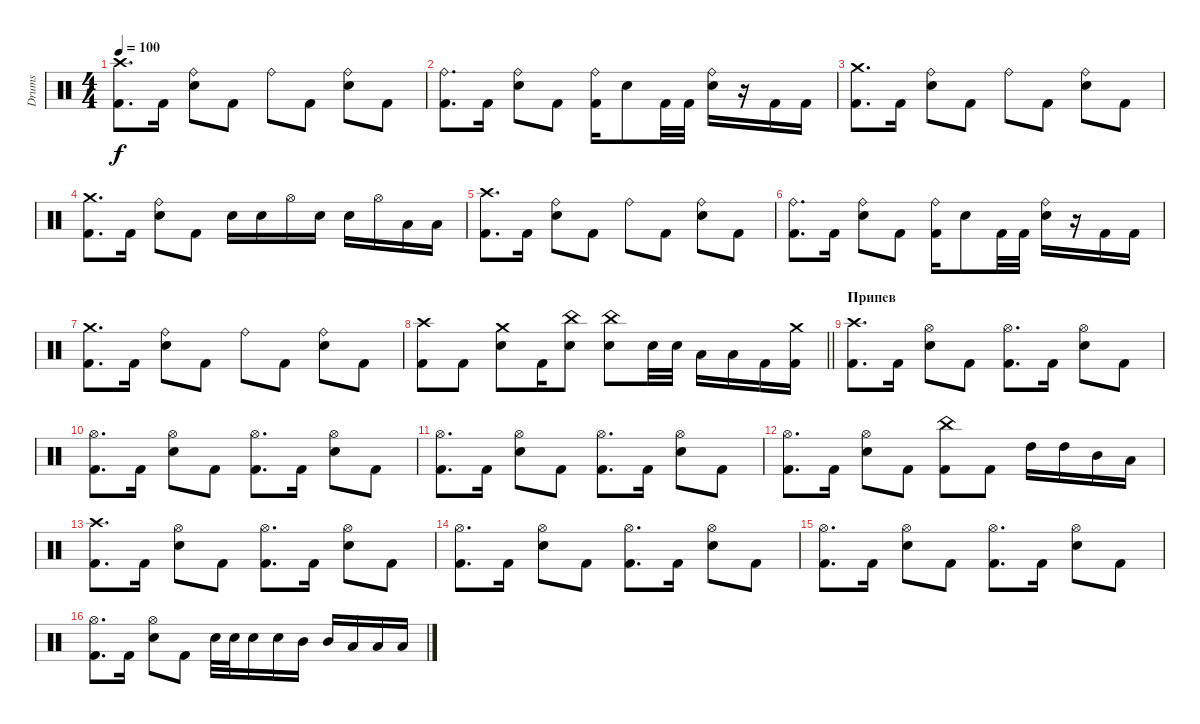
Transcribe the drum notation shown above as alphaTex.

\track ("Drums" "Drums") {instrument percussion}
\staff {score}
\articulation defaults
\ts (4 4)
\tempo 100
\clef neutral
\ks c
("Crash high (hit)" "Kick (hit) 2").8{d dy f} "Kick (hit) 2".16 ("Ride (bell)" "Snare (hit) 2").8 "Kick (hit) 2".8 "Ride (bell)".8 "Kick (hit) 2".8 ("Ride (bell)" "Snare (hit) 2").8 "Kick (hit) 2".8 |
("Ride (bell)" "Kick (hit) 2").8{d} "Kick (hit) 2".16 ("Ride (bell)" "Snare (hit) 2").8 "Kick (hit) 2".8 ("Ride (bell)" "Kick (hit) 2").16 "Snare (hit) 2".8 "Kick (hit) 2".32 "Kick (hit) 2".32 ("Ride (bell)" "Snare (hit) 2").16 r.16 "Kick (hit) 2".16 "Kick (hit) 2".16 |
("Crash medium (hit)" "Kick (hit) 2").8{d} "Kick (hit) 2".16 ("Ride (bell)" "Snare (hit) 2").8 "Kick (hit) 2".8 "Ride (bell)".8 "Kick (hit) 2".8 ("Ride (bell)" "Snare (hit) 2").8 "Kick (hit) 2".8 |
("Crash medium (hit)" "Kick (hit) 2").8{d} "Kick (hit) 2".16 ("Ride (bell)" "Snare (hit) 2").8 "Kick (hit) 2".8 "Snare (hit) 2".16 "Snare (hit) 2".16 "Hi-Hat (open)".16 "Snare (hit) 2".16 "Snare (hit) 2".16 "Hi-Hat (open)".16 "Low Tom (hit)".16 "Low Tom (hit)".16 |
("Crash high (hit)" "Kick (hit) 2").8{d} "Kick (hit) 2".16 ("Ride (bell)" "Snare (hit) 2").8 "Kick (hit) 2".8 "Ride (bell)".8 "Kick (hit) 2".8 ("Ride (bell)" "Snare (hit) 2").8 "Kick (hit) 2".8 |
("Ride (bell)" "Kick (hit) 2").8{d} "Kick (hit) 2".16 ("Ride (bell)" "Snare (hit) 2").8 "Kick (hit) 2".8 ("Ride (bell)" "Kick (hit) 2").16 "Snare (hit) 2".8 "Kick (hit) 2".32 "Kick (hit) 2".32 ("Ride (bell)" "Snare (hit) 2").16 r.16 "Kick (hit) 2".16 "Kick (hit) 2".16 |
("Crash medium (hit)" "Kick (hit) 2").8{d} "Kick (hit) 2".16 ("Ride (bell)" "Snare (hit) 2").8 "Kick (hit) 2".8 "Ride (bell)".8 "Kick (hit) 2".8 ("Ride (bell)" "Snare (hit) 2").8 "Kick (hit) 2".8 |
\barLineRight lightlight
("Crash high (hit)" "Kick (hit) 2").8 "Kick (hit) 2".8 ("Crash medium (hit)" "Snare (hit) 2").8 "Kick (hit) 2".16 ("China (hit)" "Snare (hit) 2").8 ("China (hit)" "Snare (hit) 2").8 "Snare (hit) 2".32 "Snare (hit) 2".32 "Low Tom (hit)".16 "Low Tom (hit)".16 "Kick (hit) 2".16 ("Crash medium (hit)" "Kick (hit) 2").16 |
\section ("" "Припев")
("Crash high (hit)" "Kick (hit) 2").8{d} "Kick (hit) 2".16 ("Hi-Hat (open)" "Snare (hit) 2").8 "Kick (hit) 2".8 ("Hi-Hat (open)" "Kick (hit) 2").8{d} "Kick (hit) 2".16 ("Hi-Hat (open)" "Snare (hit) 2").8 "Kick (hit) 2".8 |
("Hi-Hat (open)" "Kick (hit) 2").8{d} "Kick (hit) 2".16 ("Hi-Hat (open)" "Snare (hit) 2").8 "Kick (hit) 2".8 ("Hi-Hat (open)" "Kick (hit) 2").8{d} "Kick (hit) 2".16 ("Hi-Hat (open)" "Snare (hit) 2").8 "Kick (hit) 2".8 |
("Hi-Hat (open)" "Kick (hit) 2").8{d} "Kick (hit) 2".16 ("Hi-Hat (open)" "Snare (hit) 2").8 "Kick (hit) 2".8 ("Hi-Hat (open)" "Kick (hit) 2").8{d} "Kick (hit) 2".16 ("Hi-Hat (open)" "Snare (hit) 2").8 "Kick (hit) 2".8 |
("Hi-Hat (open)" "Kick (hit) 2").8{d} "Kick (hit) 2".16 ("Hi-Hat (open)" "Snare (hit) 2").8 "Kick (hit) 2".8 ("China (hit)" "Kick (hit) 2").8 "Kick (hit) 2".8 "High Tom (hit)".16 "High Tom (hit)".16 "Mid Tom (hit)".16 "Low Tom (hit)".16 |
("Crash high (hit)" "Kick (hit) 2").8{d} "Kick (hit) 2".16 ("Hi-Hat (open)" "Snare (hit) 2").8 "Kick (hit) 2".8 ("Hi-Hat (open)" "Kick (hit) 2").8{d} "Kick (hit) 2".16 ("Hi-Hat (open)" "Snare (hit) 2").8 "Kick (hit) 2".8 |
("Hi-Hat (open)" "Kick (hit) 2").8{d} "Kick (hit) 2".16 ("Hi-Hat (open)" "Snare (hit) 2").8 "Kick (hit) 2".8 ("Hi-Hat (open)" "Kick (hit) 2").8{d} "Kick (hit) 2".16 ("Hi-Hat (open)" "Snare (hit) 2").8 "Kick (hit) 2".8 |
("Hi-Hat (open)" "Kick (hit) 2").8{d} "Kick (hit) 2".16 ("Hi-Hat (open)" "Snare (hit) 2").8 "Kick (hit) 2".8 ("Hi-Hat (open)" "Kick (hit) 2").8{d} "Kick (hit) 2".16 ("Hi-Hat (open)" "Snare (hit) 2").8 "Kick (hit) 2".8 |
("Hi-Hat (open)" "Kick (hit) 2").8{d} "Kick (hit) 2".16 ("Hi-Hat (open)" "Snare (hit) 2").8 "Kick (hit) 2".8 "Snare (hit) 2".32 "Snare (hit) 2".32 "Snare (hit) 2".16 "Snare (hit) 2".16 "Mid Tom (hit)".16 "Mid Tom (hit)".16 "Low Tom (hit)".16 "Low Tom (hit)".16 "Low Tom (hit)".16
